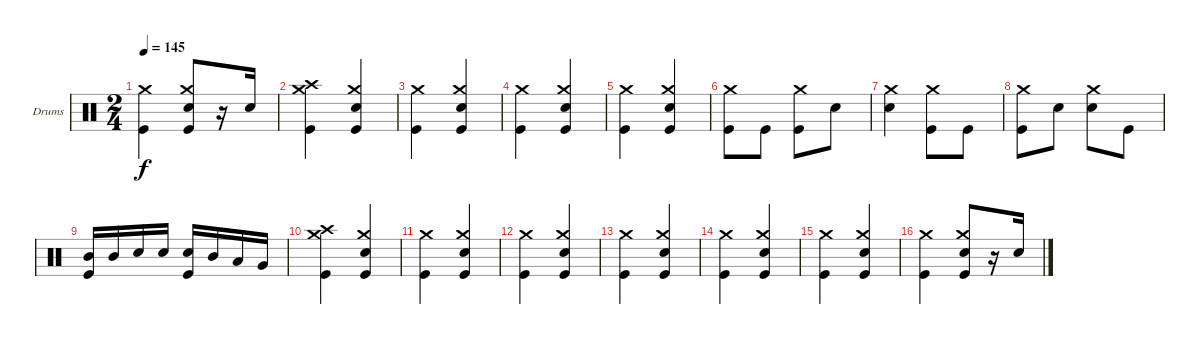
\bracketExtendMode groupsimilarinstruments
\firstSystemTrackNameOrientation horizontal
\otherSystemsTrackNameOrientation horizontal
\track ("Drumkit" "Drums") {instrument percussion}
\staff {score}
\articulation defaults
\ts (2 4)
\tempo 145
\clef neutral
\ks c
("Kick (hit)" "Crash medium (hit)").4{dy f} ("Crash medium (hit)" "Kick (hit)" "Snare (hit) 2").8 r.16 "Snare (hit) 2".16 |
("Kick (hit)" "Crash medium (hit)" "Crash high (hit)").4 ("Crash medium (hit)" "Kick (hit)" "Snare (hit) 2").4 |
("Kick (hit)" "Crash medium (hit)").4 ("Crash medium (hit)" "Kick (hit)" "Snare (hit) 2").4 |
("Kick (hit)" "Crash medium (hit)").4 ("Crash medium (hit)" "Kick (hit)" "Snare (hit) 2").4 |
("Kick (hit)" "Crash medium (hit)").4 ("Crash medium (hit)" "Kick (hit)" "Snare (hit) 2").4 |
("Kick (hit)" "Crash medium (hit)").8 "Kick (hit)".8 ("Kick (hit)" "Crash medium (hit)").8 "Snare (hit) 2".8 |
("Snare (hit) 2" "Crash medium (hit)").4 ("Kick (hit)" "Crash medium (hit)").8 "Kick (hit)".8 |
("Kick (hit)" "Crash medium (hit)").8 "Snare (hit) 2".8 ("Snare (hit) 2" "Crash medium (hit)").8 "Kick (hit)".8 |
("Mid Tom (hit)" "Kick (hit)").16 "Mid Tom (hit)".16 "Snare (hit) 2".16 "Snare (hit) 2".16 ("Snare (hit) 2" "Kick (hit)").16 "Mid Tom (hit)".16 "Low Tom (hit)".16 "Very Low Tom (hit)".16 |
("Kick (hit)" "Crash medium (hit)" "Crash high (hit)").4 ("Kick (hit)" "Crash medium (hit)" "Snare (hit) 2").4 |
("Kick (hit)" "Crash medium (hit)").4 ("Crash medium (hit)" "Kick (hit)" "Snare (hit) 2").4 |
("Kick (hit)" "Crash medium (hit)").4 ("Crash medium (hit)" "Kick (hit)" "Snare (hit) 2").4 |
("Kick (hit)" "Crash medium (hit)").4 ("Crash medium (hit)" "Kick (hit)" "Snare (hit) 2").4 |
("Kick (hit)" "Crash medium (hit)").4 ("Crash medium (hit)" "Kick (hit)" "Snare (hit) 2").4 |
("Kick (hit)" "Crash medium (hit)").4 ("Crash medium (hit)" "Kick (hit)" "Snare (hit) 2").4 |
("Kick (hit)" "Crash medium (hit)").4 ("Crash medium (hit)" "Kick (hit)" "Snare (hit) 2").8 r.16 "Snare (hit) 2".16
